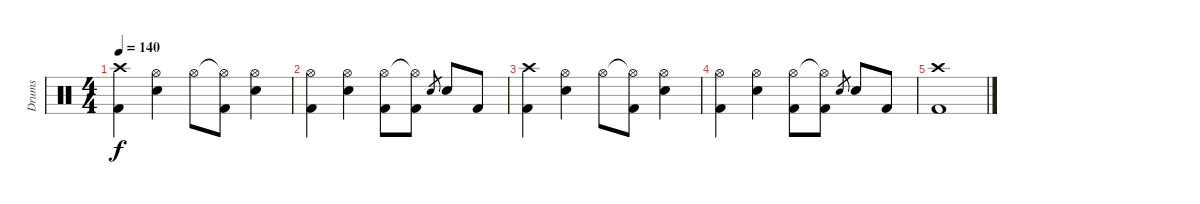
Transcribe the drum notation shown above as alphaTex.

\track ("Drums" "Drums") {instrument percussion}
\staff {score}
\articulation defaults
\ts (4 4)
\tempo 140
\clef neutral
\ks c
("Crash high (hit)" "Kick (hit) 2").4{dy f} ("Hi-Hat (open)" "Electric Snare (hit)").4 "Hi-Hat (open)".8 ("Hi-Hat (open)"{t} "Kick (hit) 2").8 ("Hi-Hat (open)" "Electric Snare (hit)").4 |
("Hi-Hat (open)" "Kick (hit) 2").4 ("Hi-Hat (open)" "Electric Snare (hit)").4 ("Hi-Hat (open)" "Kick (hit) 2").8 ("Hi-Hat (open)"{t} "Kick (hit) 2").8 "Electric Snare (hit)".8{gr} "Electric Snare (hit)".8 "Kick (hit) 2".8 |
("Crash high (hit)" "Kick (hit) 2").4 ("Hi-Hat (open)" "Electric Snare (hit)").4 "Hi-Hat (open)".8 ("Hi-Hat (open)"{t} "Kick (hit) 2").8 ("Hi-Hat (open)" "Electric Snare (hit)").4 |
("Hi-Hat (open)" "Kick (hit) 2").4 ("Hi-Hat (open)" "Electric Snare (hit)").4 ("Hi-Hat (open)" "Kick (hit) 2").8 ("Hi-Hat (open)"{t} "Kick (hit) 2").8 "Electric Snare (hit)".8{gr} "Electric Snare (hit)".8 "Kick (hit) 2".8 |
("Crash high (hit)" "Kick (hit) 2").1
